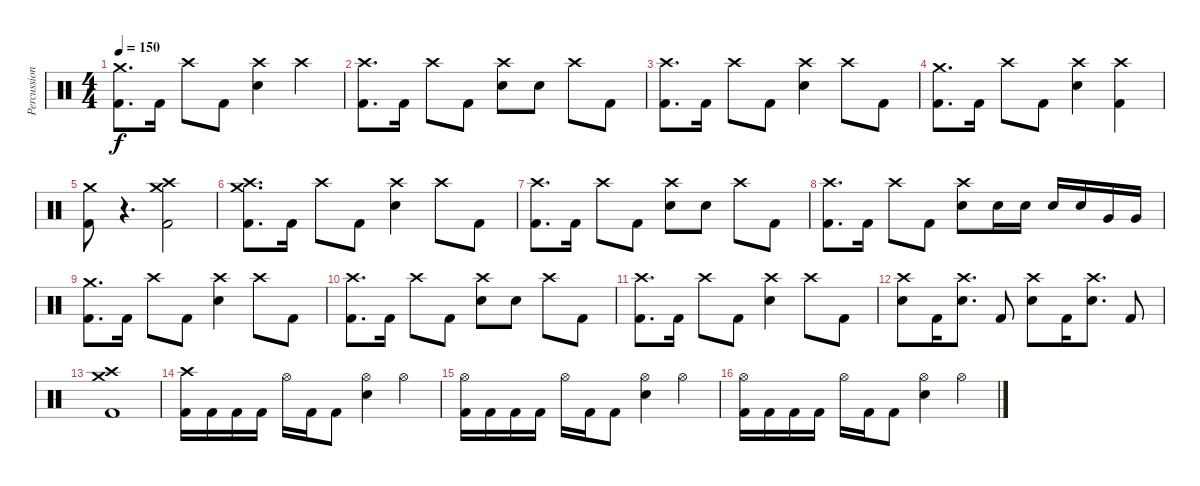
\track ("Percussion" "Percussion") {instrument percussion}
\staff {score}
\articulation defaults
\ts (4 4)
\tempo 150
\clef neutral
\ks c
("Crash medium (hit)" "Kick (hit) 2").8{d dy f} "Kick (hit) 2".16 "Crash high (hit)".8 "Kick (hit) 2".8 ("Crash high (hit)" "Electric Snare (hit)").4 "Crash high (hit)".4 |
("Crash high (hit)" "Kick (hit) 2").8{d} "Kick (hit) 2".16 "Crash high (hit)".8 "Kick (hit) 2".8 ("Crash high (hit)" "Electric Snare (hit)").8 "Electric Snare (hit)".8 "Crash high (hit)".8 "Kick (hit) 2".8 |
("Crash high (hit)" "Kick (hit) 2").8{d} "Kick (hit) 2".16 "Crash high (hit)".8 "Kick (hit) 2".8 ("Crash high (hit)" "Electric Snare (hit)").4 "Crash high (hit)".8 "Kick (hit) 2".8 |
("Crash medium (hit)" "Kick (hit) 2").8{d} "Kick (hit) 2".16 "Crash high (hit)".8 "Kick (hit) 2".8 ("Crash high (hit)" "Electric Snare (hit)").4 ("Crash high (hit)" "Kick (hit) 2").4 |
("Crash medium (hit)" "Kick (hit) 2").8 r.4{d} ("Crash high (hit)" "Crash medium (hit)" "Kick (hit) 2").2 |
("Crash high (hit)" "Crash medium (hit)" "Kick (hit) 2").8{d} "Kick (hit) 2".16 "Crash high (hit)".8 "Kick (hit) 2".8 ("Crash high (hit)" "Electric Snare (hit)").4 "Crash high (hit)".8 "Kick (hit) 2".8 |
("Crash high (hit)" "Kick (hit) 2").8{d} "Kick (hit) 2".16 "Crash high (hit)".8 "Kick (hit) 2".8 ("Crash high (hit)" "Electric Snare (hit)").8 "Electric Snare (hit)".8 "Crash high (hit)".8 "Kick (hit) 2".8 |
("Crash high (hit)" "Kick (hit) 2").8{d} "Kick (hit) 2".16 "Crash high (hit)".8 "Kick (hit) 2".8 ("Crash high (hit)" "Electric Snare (hit)").8 "Electric Snare (hit)".16 "Electric Snare (hit)".16 "Electric Snare (hit)".16 "Electric Snare (hit)".16 "Very Low Tom (hit)".16 "Very Low Tom (hit)".16 |
("Crash medium (hit)" "Kick (hit) 2").8{d} "Kick (hit) 2".16 "Crash high (hit)".8 "Kick (hit) 2".8 ("Crash high (hit)" "Electric Snare (hit)").4 "Crash high (hit)".8 "Kick (hit) 2".8 |
("Crash high (hit)" "Kick (hit) 2").8{d} "Kick (hit) 2".16 "Crash high (hit)".8 "Kick (hit) 2".8 ("Crash high (hit)" "Electric Snare (hit)").8 "Electric Snare (hit)".8 "Crash high (hit)".8 "Kick (hit) 2".8 |
("Crash high (hit)" "Kick (hit) 2").8{d} "Kick (hit) 2".16 "Crash high (hit)".8 "Kick (hit) 2".8 ("Crash high (hit)" "Electric Snare (hit)").4 "Crash high (hit)".8 "Kick (hit) 2".8 |
("Crash high (hit)" "Electric Snare (hit)").8 "Kick (hit) 2".16 ("Crash high (hit)" "Electric Snare (hit)").8{d} "Kick (hit) 2".8 ("Crash high (hit)" "Electric Snare (hit)").8 "Kick (hit) 2".16 ("Crash high (hit)" "Electric Snare (hit)").8{d} "Kick (hit) 2".8 |
("Crash high (hit)" "Crash medium (hit)" "Kick (hit) 2").1 |
("Crash high (hit)" "Kick (hit) 2").16 "Kick (hit) 2".16 "Kick (hit) 2".16 "Kick (hit) 2".16 "Hi-Hat (open)".16 "Kick (hit) 2".16 "Kick (hit) 2".8 ("Hi-Hat (open)" "Electric Snare (hit)").4 "Hi-Hat (open)".4 |
("Hi-Hat (open)" "Kick (hit) 2").16 "Kick (hit) 2".16 "Kick (hit) 2".16 "Kick (hit) 2".16 "Hi-Hat (open)".16 "Kick (hit) 2".16 "Kick (hit) 2".8 ("Hi-Hat (open)" "Electric Snare (hit)").4 "Hi-Hat (open)".4 |
("Hi-Hat (open)" "Kick (hit) 2").16 "Kick (hit) 2".16 "Kick (hit) 2".16 "Kick (hit) 2".16 "Hi-Hat (open)".16 "Kick (hit) 2".16 "Kick (hit) 2".8 ("Hi-Hat (open)" "Electric Snare (hit)").4 "Hi-Hat (open)".4
